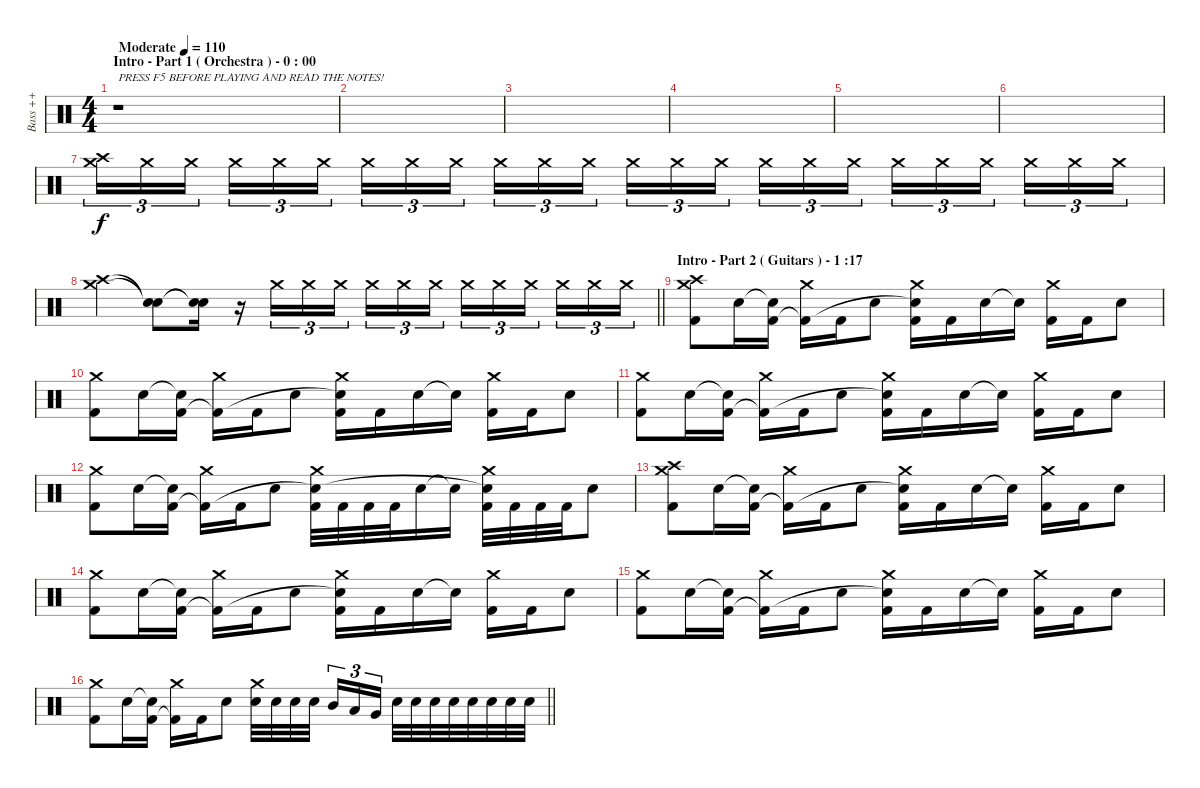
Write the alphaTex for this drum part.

\track ("  Bass ++" "  Bass ++") {instrument percussion}
\staff {score}
\articulation defaults
\ts (4 4)
\section ("" "Intro - Part 1 ( Orchestra ) - 0 : 00")
\tempo (110 "Moderate")
\clef neutral
\ks c
r.1{txt "PRESS F5 BEFORE PLAYING AND READ THE NOTES!" dy f volume 2} |
|
|
|
|
|
("Crash high (hit)" "Crash medium (hit)").16{tu (3 2) volume 16} "Crash medium (hit)".16{tu (3 2)} "Crash medium (hit)".16{tu (3 2) beam splitsecondary} "Crash medium (hit)".16{tu (3 2)} "Crash medium (hit)".16{tu (3 2)} "Crash medium (hit)".16{tu (3 2)} "Crash medium (hit)".16{tu (3 2)} "Crash medium (hit)".16{tu (3 2)} "Crash medium (hit)".16{tu (3 2) beam splitsecondary} "Crash medium (hit)".16{tu (3 2)} "Crash medium (hit)".16{tu (3 2)} "Crash medium (hit)".16{tu (3 2)} "Crash medium (hit)".16{tu (3 2)} "Crash medium (hit)".16{tu (3 2)} "Crash medium (hit)".16{tu (3 2) beam splitsecondary} "Crash medium (hit)".16{tu (3 2)} "Crash medium (hit)".16{tu (3 2)} "Crash medium (hit)".16{tu (3 2)} "Crash medium (hit)".16{tu (3 2)} "Crash medium (hit)".16{tu (3 2)} "Crash medium (hit)".16{tu (3 2) beam splitsecondary} "Crash medium (hit)".16{tu (3 2)} "Crash medium (hit)".16{tu (3 2)} "Crash medium (hit)".16{tu (3 2)} |
\barLineRight lightlight
("Crash high (hit)" "Crash medium (hit)").4 ("Snare (hit)"{t} "Snare (hit)"{t}).8 ("Snare (hit)"{t} "Snare (hit)"{t}).16 r.16{volume 3} "Crash medium (hit)".16{tu (3 2) volume 16} "Crash medium (hit)".16{tu (3 2)} "Crash medium (hit)".16{tu (3 2) beam splitsecondary} "Crash medium (hit)".16{tu (3 2)} "Crash medium (hit)".16{tu (3 2)} "Crash medium (hit)".16{tu (3 2)} "Crash medium (hit)".16{tu (3 2)} "Crash medium (hit)".16{tu (3 2)} "Crash medium (hit)".16{tu (3 2) beam splitsecondary} "Crash medium (hit)".16{tu (3 2)} "Crash medium (hit)".16{tu (3 2)} "Crash medium (hit)".16{tu (3 2)} |
\section ("" "Intro - Part 2 ( Guitars ) - 1 :17")
("Crash medium (hit)" "Crash high (hit)" "Kick (hit) 2").8 "Snare (hit) 2".16 ("Snare (hit)"{t} "Kick (hit) 2").16 ("Crash medium (hit)" "Kick (hit) 2"{t}).16 "Kick (hit) 2".16 "Snare (hit) 2".8 ("Crash medium (hit)" "Snare (hit) 2"{t} "Kick (hit) 2").16 "Kick (hit) 2".16 "Snare (hit) 2".16 "Snare (hit) 2"{t}.16 ("Crash medium (hit)" "Kick (hit) 2").16 "Kick (hit) 2".16 "Snare (hit) 2".8 |
("Crash medium (hit)" "Kick (hit) 2").8 "Snare (hit) 2".16 ("Snare (hit)"{t} "Kick (hit) 2").16 ("Crash medium (hit)" "Kick (hit) 2"{t}).16 "Kick (hit) 2".16 "Snare (hit) 2".8 ("Crash medium (hit)" "Snare (hit) 2"{t} "Kick (hit) 2").16 "Kick (hit) 2".16 "Snare (hit) 2".16 "Snare (hit) 2"{t}.16 ("Crash medium (hit)" "Kick (hit) 2").16 "Kick (hit) 2".16 "Snare (hit) 2".8 |
("Crash medium (hit)" "Kick (hit) 2").8 "Snare (hit) 2".16 ("Snare (hit)"{t} "Kick (hit) 2").16 ("Crash medium (hit)" "Kick (hit) 2"{t}).16 "Kick (hit) 2".16 "Snare (hit) 2".8 ("Crash medium (hit)" "Snare (hit) 2"{t} "Kick (hit) 2").16 "Kick (hit) 2".16 "Snare (hit) 2".16 "Snare (hit) 2"{t}.16 ("Crash medium (hit)" "Kick (hit) 2").16 "Kick (hit) 2".16 "Snare (hit) 2".8 |
("Crash medium (hit)" "Kick (hit) 2").8 "Snare (hit) 2".16 ("Snare (hit)"{t} "Kick (hit) 2").16 ("Crash medium (hit)" "Kick (hit) 2"{t}).16 "Kick (hit) 2".16 "Snare (hit) 2".8 ("Crash medium (hit)" "Snare (hit) 2"{t} "Kick (hit) 2").32 "Kick (hit) 2".32 "Kick (hit) 2".32 "Kick (hit) 2".32 "Snare (hit) 2".16 "Snare (hit) 2"{t}.16 ("Crash medium (hit)" "Snare (hit) 2"{t} "Kick (hit) 2").32 "Kick (hit) 2".32 "Kick (hit) 2".32 "Kick (hit) 2".32 "Snare (hit) 2".8 |
("Crash medium (hit)" "Crash high (hit)" "Kick (hit) 2").8 "Snare (hit) 2".16 ("Snare (hit)"{t} "Kick (hit) 2").16 ("Crash medium (hit)" "Kick (hit) 2"{t}).16 "Kick (hit) 2".16 "Snare (hit) 2".8 ("Crash medium (hit)" "Snare (hit) 2"{t} "Kick (hit) 2").16 "Kick (hit) 2".16 "Snare (hit) 2".16 "Snare (hit) 2"{t}.16 ("Crash medium (hit)" "Kick (hit) 2").16 "Kick (hit) 2".16 "Snare (hit) 2".8 |
("Crash medium (hit)" "Kick (hit) 2").8 "Snare (hit) 2".16 ("Snare (hit)"{t} "Kick (hit) 2").16 ("Crash medium (hit)" "Kick (hit) 2"{t}).16 "Kick (hit) 2".16 "Snare (hit) 2".8 ("Crash medium (hit)" "Snare (hit) 2"{t} "Kick (hit) 2").16 "Kick (hit) 2".16 "Snare (hit) 2".16 "Snare (hit) 2"{t}.16 ("Crash medium (hit)" "Kick (hit) 2").16 "Kick (hit) 2".16 "Snare (hit) 2".8 |
("Crash medium (hit)" "Kick (hit) 2").8 "Snare (hit) 2".16 ("Snare (hit)"{t} "Kick (hit) 2").16 ("Crash medium (hit)" "Kick (hit) 2"{t}).16 "Kick (hit) 2".16 "Snare (hit) 2".8 ("Crash medium (hit)" "Snare (hit) 2"{t} "Kick (hit) 2").16 "Kick (hit) 2".16 "Snare (hit) 2".16 "Snare (hit) 2"{t}.16 ("Crash medium (hit)" "Kick (hit) 2").16 "Kick (hit) 2".16 "Snare (hit) 2".8 |
\barLineRight lightlight
("Crash medium (hit)" "Kick (hit) 2").8 "Snare (hit) 2".16 ("Snare (hit)"{t} "Kick (hit) 2").16 ("Crash medium (hit)" "Kick (hit) 2"{t}).16 "Kick (hit) 2".16 "Snare (hit) 2".8 ("Crash medium (hit)" "Electric Snare (hit)").32 "Electric Snare (hit)".32 "Electric Snare (hit)".32 "Electric Snare (hit)".32{beam splitsecondary} "Mid Tom (hit)".16{tu (3 2)} "Low Tom (hit)".16{tu (3 2)} "Very Low Tom (hit)".16{tu (3 2)} "Electric Snare (hit)".32 "Electric Snare (hit)".32 "Electric Snare (hit)".32 "Electric Snare (hit)".32 "Electric Snare (hit)".32 "Electric Snare (hit)".32 "Electric Snare (hit)".32 "Electric Snare (hit)".32
